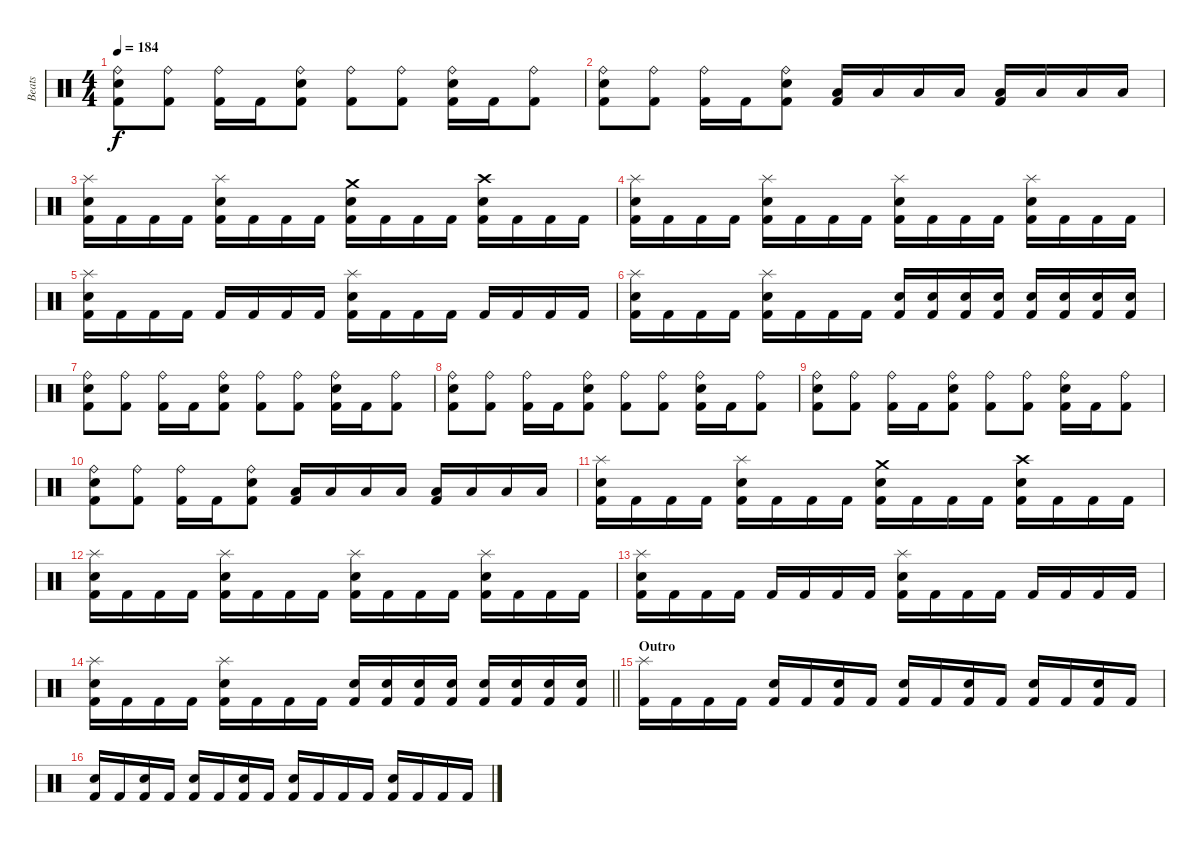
\track ("Beats" "Beats") {instrument percussion}
\staff {score}
\articulation defaults
\ts (4 4)
\tempo 184
\clef neutral
\ks c
("Ride (bell)" "Electric Snare (hit)" "Kick (hit) 2").8{dy f} ("Ride (bell)" "Kick (hit) 2").8 ("Ride (bell)" "Kick (hit) 2").16 "Kick (hit) 2".16 ("Ride (bell)" "Electric Snare (hit)" "Kick (hit) 2").8 ("Ride (bell)" "Kick (hit) 2").8 ("Ride (bell)" "Kick (hit) 2").8 ("Ride (bell)" "Electric Snare (hit)" "Kick (hit) 2").16 "Kick (hit) 2".16 ("Ride (bell)" "Kick (hit) 2").8 |
("Ride (bell)" "Electric Snare (hit)" "Kick (hit) 2").8 ("Ride (bell)" "Kick (hit) 2").8 ("Ride (bell)" "Kick (hit) 2").16 "Kick (hit) 2".16 ("Ride (bell)" "Electric Snare (hit)" "Kick (hit) 2").8 ("Low Tom (hit)" "Kick (hit) 2").16 "Low Tom (hit)".16 "Low Tom (hit)".16 "Low Tom (hit)".16 ("Low Floor Tom (hit)" "Kick (hit) 2").16 "Low Floor Tom (hit)".16 "Low Floor Tom (hit)".16 "Low Floor Tom (hit)".16 |
("Splash (hit)" "Electric Snare (hit)" "Kick (hit) 2").16 "Kick (hit) 2".16 "Kick (hit) 2".16 "Kick (hit) 2".16 ("Splash (hit)" "Electric Snare (hit)" "Kick (hit) 2").16 "Kick (hit) 2".16 "Kick (hit) 2".16 "Kick (hit) 2".16 ("Crash medium (hit)" "Electric Snare (hit)" "Kick (hit) 2").16 "Kick (hit) 2".16 "Kick (hit) 2".16 "Kick (hit) 2".16 ("Crash high (hit)" "Electric Snare (hit)" "Kick (hit) 2").16 "Kick (hit) 2".16 "Kick (hit) 2".16 "Kick (hit) 2".16 |
("Splash (hit)" "Electric Snare (hit)" "Kick (hit) 2").16 "Kick (hit) 2".16 "Kick (hit) 2".16 "Kick (hit) 2".16 ("Splash (hit)" "Electric Snare (hit)" "Kick (hit) 2").16 "Kick (hit) 2".16 "Kick (hit) 2".16 "Kick (hit) 2".16 ("Splash (hit)" "Electric Snare (hit)" "Kick (hit) 2").16 "Kick (hit) 2".16 "Kick (hit) 2".16 "Kick (hit) 2".16 ("Splash (hit)" "Electric Snare (hit)" "Kick (hit) 2").16 "Kick (hit) 2".16 "Kick (hit) 2".16 "Kick (hit) 2".16 |
("Splash (hit)" "Electric Snare (hit)" "Kick (hit) 2").16 "Kick (hit) 2".16 "Kick (hit) 2".16 "Kick (hit) 2".16 "Kick (hit) 2".16 "Kick (hit) 2".16 "Kick (hit) 2".16 "Kick (hit) 2".16 ("Splash (hit)" "Electric Snare (hit)" "Kick (hit) 2").16 "Kick (hit) 2".16 "Kick (hit) 2".16 "Kick (hit) 2".16 "Kick (hit) 2".16 "Kick (hit) 2".16 "Kick (hit) 2".16 "Kick (hit) 2".16 |
("Splash (hit)" "Electric Snare (hit)" "Kick (hit) 2").16 "Kick (hit) 2".16 "Kick (hit) 2".16 "Kick (hit) 2".16 ("Splash (hit)" "Electric Snare (hit)" "Kick (hit) 2").16 "Kick (hit) 2".16 "Kick (hit) 2".16 "Kick (hit) 2".16 ("Electric Snare (hit)" "Kick (hit) 2").16 ("Electric Snare (hit)" "Kick (hit) 2").16 ("Electric Snare (hit)" "Kick (hit) 2").16 ("Electric Snare (hit)" "Kick (hit) 2").16 ("Electric Snare (hit)" "Kick (hit) 2").16 ("Electric Snare (hit)" "Kick (hit) 2").16 ("Electric Snare (hit)" "Kick (hit) 2").16 ("Electric Snare (hit)" "Kick (hit) 2").16 |
("Ride (bell)" "Electric Snare (hit)" "Kick (hit) 2").8 ("Ride (bell)" "Kick (hit) 2").8 ("Ride (bell)" "Kick (hit) 2").16 "Kick (hit) 2".16 ("Ride (bell)" "Electric Snare (hit)" "Kick (hit) 2").8 ("Ride (bell)" "Kick (hit) 2").8 ("Ride (bell)" "Kick (hit) 2").8 ("Ride (bell)" "Electric Snare (hit)" "Kick (hit) 2").16 "Kick (hit) 2".16 ("Ride (bell)" "Kick (hit) 2").8 |
("Ride (bell)" "Electric Snare (hit)" "Kick (hit) 2").8 ("Ride (bell)" "Kick (hit) 2").8 ("Ride (bell)" "Kick (hit) 2").16 "Kick (hit) 2".16 ("Ride (bell)" "Electric Snare (hit)" "Kick (hit) 2").8 ("Ride (bell)" "Kick (hit) 2").8 ("Ride (bell)" "Kick (hit) 2").8 ("Ride (bell)" "Electric Snare (hit)" "Kick (hit) 2").16 "Kick (hit) 2".16 ("Ride (bell)" "Kick (hit) 2").8 |
("Ride (bell)" "Electric Snare (hit)" "Kick (hit) 2").8 ("Ride (bell)" "Kick (hit) 2").8 ("Ride (bell)" "Kick (hit) 2").16 "Kick (hit) 2".16 ("Ride (bell)" "Electric Snare (hit)" "Kick (hit) 2").8 ("Ride (bell)" "Kick (hit) 2").8 ("Ride (bell)" "Kick (hit) 2").8 ("Ride (bell)" "Electric Snare (hit)" "Kick (hit) 2").16 "Kick (hit) 2".16 ("Ride (bell)" "Kick (hit) 2").8 |
("Ride (bell)" "Electric Snare (hit)" "Kick (hit) 2").8 ("Ride (bell)" "Kick (hit) 2").8 ("Ride (bell)" "Kick (hit) 2").16 "Kick (hit) 2".16 ("Ride (bell)" "Electric Snare (hit)" "Kick (hit) 2").8 ("Low Tom (hit)" "Kick (hit) 2").16 "Low Tom (hit)".16 "Low Tom (hit)".16 "Low Tom (hit)".16 ("Low Floor Tom (hit)" "Kick (hit) 2").16 "Low Floor Tom (hit)".16 "Low Floor Tom (hit)".16 "Low Floor Tom (hit)".16 |
("Splash (hit)" "Electric Snare (hit)" "Kick (hit) 2").16 "Kick (hit) 2".16 "Kick (hit) 2".16 "Kick (hit) 2".16 ("Splash (hit)" "Electric Snare (hit)" "Kick (hit) 2").16 "Kick (hit) 2".16 "Kick (hit) 2".16 "Kick (hit) 2".16 ("Crash medium (hit)" "Electric Snare (hit)" "Kick (hit) 2").16 "Kick (hit) 2".16 "Kick (hit) 2".16 "Kick (hit) 2".16 ("Crash high (hit)" "Electric Snare (hit)" "Kick (hit) 2").16 "Kick (hit) 2".16 "Kick (hit) 2".16 "Kick (hit) 2".16 |
("Splash (hit)" "Electric Snare (hit)" "Kick (hit) 2").16 "Kick (hit) 2".16 "Kick (hit) 2".16 "Kick (hit) 2".16 ("Splash (hit)" "Electric Snare (hit)" "Kick (hit) 2").16 "Kick (hit) 2".16 "Kick (hit) 2".16 "Kick (hit) 2".16 ("Splash (hit)" "Electric Snare (hit)" "Kick (hit) 2").16 "Kick (hit) 2".16 "Kick (hit) 2".16 "Kick (hit) 2".16 ("Splash (hit)" "Electric Snare (hit)" "Kick (hit) 2").16 "Kick (hit) 2".16 "Kick (hit) 2".16 "Kick (hit) 2".16 |
("Splash (hit)" "Electric Snare (hit)" "Kick (hit) 2").16 "Kick (hit) 2".16 "Kick (hit) 2".16 "Kick (hit) 2".16 "Kick (hit) 2".16 "Kick (hit) 2".16 "Kick (hit) 2".16 "Kick (hit) 2".16 ("Splash (hit)" "Electric Snare (hit)" "Kick (hit) 2").16 "Kick (hit) 2".16 "Kick (hit) 2".16 "Kick (hit) 2".16 "Kick (hit) 2".16 "Kick (hit) 2".16 "Kick (hit) 2".16 "Kick (hit) 2".16 |
\barLineRight lightlight
("Splash (hit)" "Electric Snare (hit)" "Kick (hit) 2").16 "Kick (hit) 2".16 "Kick (hit) 2".16 "Kick (hit) 2".16 ("Splash (hit)" "Electric Snare (hit)" "Kick (hit) 2").16 "Kick (hit) 2".16 "Kick (hit) 2".16 "Kick (hit) 2".16 ("Electric Snare (hit)" "Kick (hit) 2").16 ("Electric Snare (hit)" "Kick (hit) 2").16 ("Electric Snare (hit)" "Kick (hit) 2").16 ("Electric Snare (hit)" "Kick (hit) 2").16 ("Electric Snare (hit)" "Kick (hit) 2").16 ("Electric Snare (hit)" "Kick (hit) 2").16 ("Electric Snare (hit)" "Kick (hit) 2").16 ("Electric Snare (hit)" "Kick (hit) 2").16 |
\section ("" "Outro")
("Splash (hit)" "Kick (hit) 2").16 "Kick (hit) 2".16 "Kick (hit) 2".16 "Kick (hit) 2".16 ("Electric Snare (hit)" "Kick (hit) 2").16 "Kick (hit) 2".16 ("Electric Snare (hit)" "Kick (hit) 2").16 "Kick (hit) 2".16 ("Electric Snare (hit)" "Kick (hit) 2").16 "Kick (hit) 2".16 ("Electric Snare (hit)" "Kick (hit) 2").16 "Kick (hit) 2".16 ("Electric Snare (hit)" "Kick (hit) 2").16 "Kick (hit) 2".16 ("Electric Snare (hit)" "Kick (hit) 2").16 "Kick (hit) 2".16 |
("Electric Snare (hit)" "Kick (hit) 2").16 "Kick (hit) 2".16 ("Electric Snare (hit)" "Kick (hit) 2").16 "Kick (hit) 2".16 ("Electric Snare (hit)" "Kick (hit) 2").16 "Kick (hit) 2".16 ("Electric Snare (hit)" "Kick (hit) 2").16 "Kick (hit) 2".16 ("Electric Snare (hit)" "Kick (hit) 2").16 "Kick (hit) 2".16 "Kick (hit) 2".16 "Kick (hit) 2".16 ("Electric Snare (hit)" "Kick (hit) 2").16 "Kick (hit) 2".16 "Kick (hit) 2".16 "Kick (hit) 2".16
